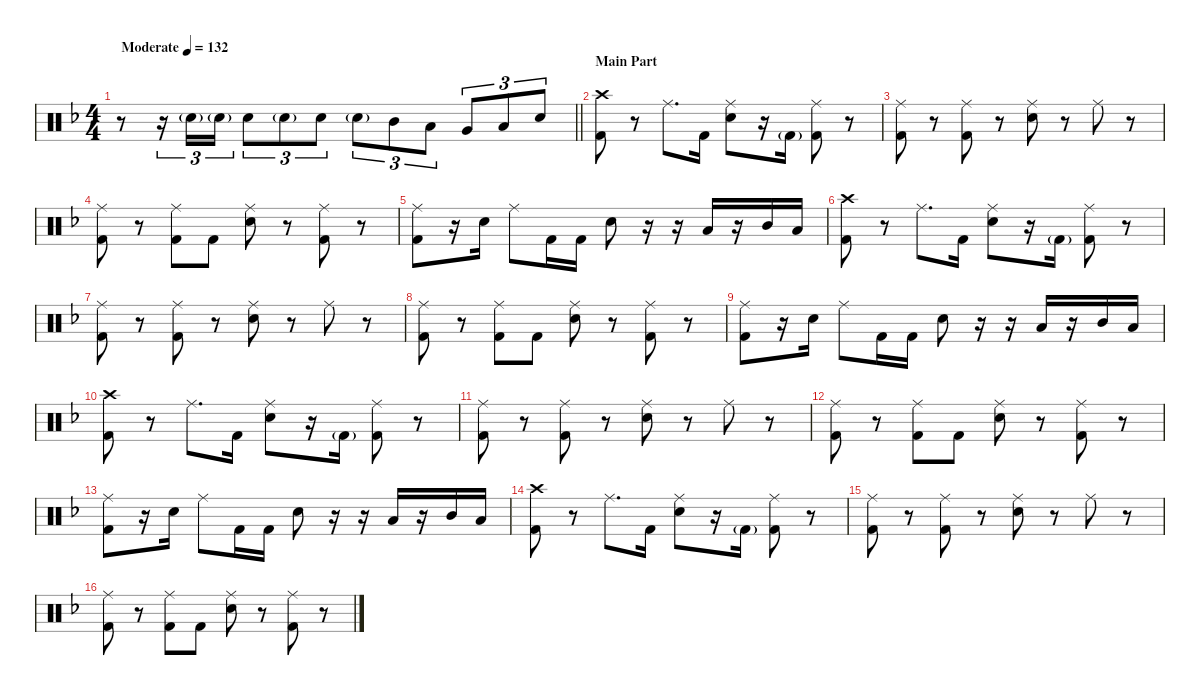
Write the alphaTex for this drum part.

\defaultSystemsLayout 4
\hideDynamics
\bracketExtendMode nobrackets
\singleTrackTrackNamePolicy hidden
\multiTrackTrackNamePolicy hidden
\firstSystemTrackNameMode fullname
\firstSystemTrackNameOrientation horizontal
\otherSystemsTrackNameOrientation horizontal
\track ("Drums" "drm.") {instrument percussion}
\staff {score}
\articulation defaults
\ts (4 4)
\beaming (8 2 2 2 2)
\tempo (132 "Moderate")
\clef neutral
\barLineRight lightlight
\ks dminor
r.8{dy mf beam Down} r.16{tu (3 2) beam Down} "Snare (hit) 2"{g acc forcenatural}.16{tu (3 2) beam Down} "Snare (hit) 2"{g acc forcenatural}.16{tu (3 2) beam Down} "Snare (hit) 2"{acc forcenatural}.8{tu (3 2) dy f beam Down} "Snare (hit) 2"{g acc forcenatural}.8{tu (3 2) dy mf beam Down} "Snare (hit) 2"{acc forcenatural}.8{tu (3 2) dy f beam Down} "Snare (hit) 2"{g acc forcenatural}.8{tu (3 2) dy mf beam Down} "Mid Tom (hit)"{acc forcenatural}.8{tu (3 2) dy f beam Down} "Low Tom (hit)"{acc forcenatural}.8{tu (3 2) beam Down} "Very Low Tom (hit)"{acc forcenatural}.8{tu (3 2) beam Up} "Low Floor Tom (hit)"{acc forcenatural}.8{tu (3 2) beam Up} "Snare (hit) 2"{acc forcenatural}.8{tu (3 2) beam Up} |
\section ("" "Main Part")
("Crash high (hit)"{acc forcenatural} "Kick (hit) 2"{acc forcenatural}).8{beam Down} r.8{beam Down} "Ride (middle)"{acc forcenatural}.8{d beam Down} "Kick (hit) 2"{acc forcenatural}.16{beam Down} ("Ride (middle)"{acc forcenatural} "Snare (hit) 2"{acc forcenatural}).8{beam Down} r.16{beam Down} "Kick (hit) 2"{g acc forcenatural}.16{dy mf beam Down} ("Ride (middle)"{acc forcenatural} "Kick (hit) 2"{acc forcenatural}).8{dy f beam Down} r.8{beam Down} |
("Ride (middle)"{acc forcenatural} "Kick (hit) 2"{acc forcenatural}).8{beam Down} r.8{beam Down} ("Ride (middle)"{acc forcenatural} "Kick (hit) 2"{acc forcenatural}).8{beam Down} r.8{beam Down} ("Ride (middle)"{acc forcenatural} "Snare (hit) 2"{acc forcenatural}).8{beam Down} r.8{beam Down} "Ride (middle)"{acc forcenatural}.8{beam Down} r.8{beam Down} |
("Ride (middle)"{acc forcenatural} "Kick (hit) 2"{acc forcenatural}).8{beam Down} r.8{beam Down} ("Ride (middle)"{acc forcenatural} "Kick (hit) 2"{acc forcenatural}).8{beam Down} "Kick (hit) 2"{acc forcenatural}.8{beam Down} ("Ride (middle)"{acc forcenatural} "Snare (hit) 2"{acc forcenatural}).8{beam Down} r.8{beam Down} ("Ride (middle)"{acc forcenatural} "Kick (hit) 2"{acc forcenatural}).8{beam Down} r.8{beam Down} |
("Ride (middle)"{acc forcenatural} "Kick (hit) 2"{acc forcenatural}).8{beam Down} r.16{beam Down} "Snare (hit) 2"{acc forcenatural}.16{beam Down} "Ride (middle)"{acc forcenatural}.8{beam Down} "Kick (hit) 2"{acc forcenatural}.16{beam Down} "Kick (hit) 2"{acc forcenatural}.16{beam Down} "Snare (hit) 2"{acc forcenatural}.8{beam Down} r.16{beam Down} r.16{beam Down} "Low Tom (hit)"{acc forcenatural}.16{beam Up} r.16{beam Up} "Mid Tom (hit)"{acc forcenatural}.16{beam Up} "Low Tom (hit)"{acc forcenatural}.16{beam Up} |
("Crash high (hit)"{acc forcenatural} "Kick (hit) 2"{acc forcenatural}).8{beam Down} r.8{beam Down} "Ride (middle)"{acc forcenatural}.8{d beam Down} "Kick (hit) 2"{acc forcenatural}.16{beam Down} ("Ride (middle)"{acc forcenatural} "Snare (hit) 2"{acc forcenatural}).8{beam Down} r.16{beam Down} "Kick (hit) 2"{g acc forcenatural}.16{dy mf beam Down} ("Ride (middle)"{acc forcenatural} "Kick (hit) 2"{acc forcenatural}).8{dy f beam Down} r.8{beam Down} |
("Ride (middle)"{acc forcenatural} "Kick (hit) 2"{acc forcenatural}).8{beam Down} r.8{beam Down} ("Ride (middle)"{acc forcenatural} "Kick (hit) 2"{acc forcenatural}).8{beam Down} r.8{beam Down} ("Ride (middle)"{acc forcenatural} "Snare (hit) 2"{acc forcenatural}).8{beam Down} r.8{beam Down} "Ride (middle)"{acc forcenatural}.8{beam Down} r.8{beam Down} |
("Ride (middle)"{acc forcenatural} "Kick (hit) 2"{acc forcenatural}).8{beam Down} r.8{beam Down} ("Ride (middle)"{acc forcenatural} "Kick (hit) 2"{acc forcenatural}).8{beam Down} "Kick (hit) 2"{acc forcenatural}.8{beam Down} ("Ride (middle)"{acc forcenatural} "Snare (hit) 2"{acc forcenatural}).8{beam Down} r.8{beam Down} ("Ride (middle)"{acc forcenatural} "Kick (hit) 2"{acc forcenatural}).8{beam Down} r.8{beam Down} |
("Ride (middle)"{acc forcenatural} "Kick (hit) 2"{acc forcenatural}).8{beam Down} r.16{beam Down} "Snare (hit) 2"{acc forcenatural}.16{beam Down} "Ride (middle)"{acc forcenatural}.8{beam Down} "Kick (hit) 2"{acc forcenatural}.16{beam Down} "Kick (hit) 2"{acc forcenatural}.16{beam Down} "Snare (hit) 2"{acc forcenatural}.8{beam Down} r.16{beam Down} r.16{beam Down} "Low Tom (hit)"{acc forcenatural}.16{beam Up} r.16{beam Up} "Mid Tom (hit)"{acc forcenatural}.16{beam Up} "Low Tom (hit)"{acc forcenatural}.16{beam Up} |
("Crash high (hit)"{acc forcenatural} "Kick (hit) 2"{acc forcenatural}).8{beam Down} r.8{beam Down} "Ride (middle)"{acc forcenatural}.8{d beam Down} "Kick (hit) 2"{acc forcenatural}.16{beam Down} ("Ride (middle)"{acc forcenatural} "Snare (hit) 2"{acc forcenatural}).8{beam Down} r.16{beam Down} "Kick (hit) 2"{g acc forcenatural}.16{dy mf beam Down} ("Ride (middle)"{acc forcenatural} "Kick (hit) 2"{acc forcenatural}).8{dy f beam Down} r.8{beam Down} |
("Ride (middle)"{acc forcenatural} "Kick (hit) 2"{acc forcenatural}).8{beam Down} r.8{beam Down} ("Ride (middle)"{acc forcenatural} "Kick (hit) 2"{acc forcenatural}).8{beam Down} r.8{beam Down} ("Ride (middle)"{acc forcenatural} "Snare (hit) 2"{acc forcenatural}).8{beam Down} r.8{beam Down} "Ride (middle)"{acc forcenatural}.8{beam Down} r.8{beam Down} |
("Ride (middle)"{acc forcenatural} "Kick (hit) 2"{acc forcenatural}).8{beam Down} r.8{beam Down} ("Ride (middle)"{acc forcenatural} "Kick (hit) 2"{acc forcenatural}).8{beam Down} "Kick (hit) 2"{acc forcenatural}.8{beam Down} ("Ride (middle)"{acc forcenatural} "Snare (hit) 2"{acc forcenatural}).8{beam Down} r.8{beam Down} ("Ride (middle)"{acc forcenatural} "Kick (hit) 2"{acc forcenatural}).8{beam Down} r.8{beam Down} |
("Ride (middle)"{acc forcenatural} "Kick (hit) 2"{acc forcenatural}).8{beam Down} r.16{beam Down} "Snare (hit) 2"{acc forcenatural}.16{beam Down} "Ride (middle)"{acc forcenatural}.8{beam Down} "Kick (hit) 2"{acc forcenatural}.16{beam Down} "Kick (hit) 2"{acc forcenatural}.16{beam Down} "Snare (hit) 2"{acc forcenatural}.8{beam Down} r.16{beam Down} r.16{beam Down} "Low Tom (hit)"{acc forcenatural}.16{beam Up} r.16{beam Up} "Mid Tom (hit)"{acc forcenatural}.16{beam Up} "Low Tom (hit)"{acc forcenatural}.16{beam Up} |
("Crash high (hit)"{acc forcenatural} "Kick (hit) 2"{acc forcenatural}).8{beam Down} r.8{beam Down} "Ride (middle)"{acc forcenatural}.8{d beam Down} "Kick (hit) 2"{acc forcenatural}.16{beam Down} ("Ride (middle)"{acc forcenatural} "Snare (hit) 2"{acc forcenatural}).8{beam Down} r.16{beam Down} "Kick (hit) 2"{g acc forcenatural}.16{dy mf beam Down} ("Ride (middle)"{acc forcenatural} "Kick (hit) 2"{acc forcenatural}).8{dy f beam Down} r.8{beam Down} |
("Ride (middle)"{acc forcenatural} "Kick (hit) 2"{acc forcenatural}).8{beam Down} r.8{beam Down} ("Ride (middle)"{acc forcenatural} "Kick (hit) 2"{acc forcenatural}).8{beam Down} r.8{beam Down} ("Ride (middle)"{acc forcenatural} "Snare (hit) 2"{acc forcenatural}).8{beam Down} r.8{beam Down} "Ride (middle)"{acc forcenatural}.8{beam Down} r.8{beam Down} |
("Ride (middle)"{acc forcenatural} "Kick (hit) 2"{acc forcenatural}).8{beam Down} r.8{beam Down} ("Ride (middle)"{acc forcenatural} "Kick (hit) 2"{acc forcenatural}).8{beam Down} "Kick (hit) 2"{acc forcenatural}.8{beam Down} ("Ride (middle)"{acc forcenatural} "Snare (hit) 2"{acc forcenatural}).8{beam Down} r.8{beam Down} ("Ride (middle)"{acc forcenatural} "Kick (hit) 2"{acc forcenatural}).8{beam Down} r.8{beam Down}
